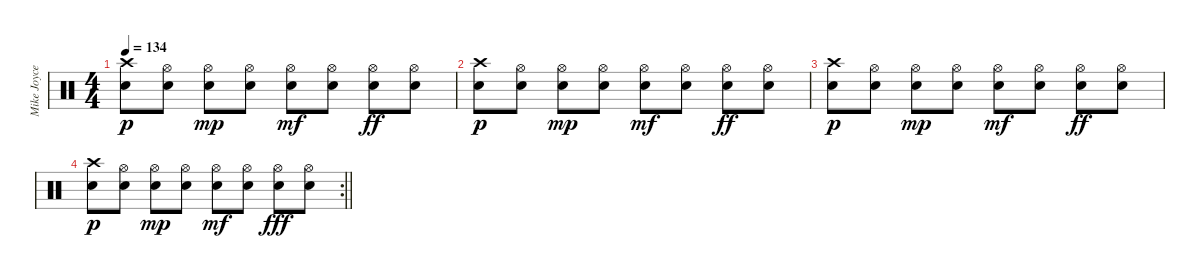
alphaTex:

\track ("Mike Joyce" "Mike Joyce") {instrument percussion}
\staff {score}
\articulation defaults
\ts (4 4)
\tempo 134
\clef neutral
\ks c
("Crash high (hit)" "Snare (hit) 2").8{bd 480 dy p} ("Hi-Hat (open)" "Snare (hit) 2").8 ("Hi-Hat (open)" "Snare (hit) 2").8{dy mp} ("Hi-Hat (open)" "Snare (hit) 2").8 ("Hi-Hat (open)" "Snare (hit) 2").8{dy mf} ("Hi-Hat (open)" "Snare (hit) 2").8 ("Hi-Hat (open)" "Snare (hit) 2").8{dy ff} ("Hi-Hat (open)" "Snare (hit) 2").8 |
("Crash high (hit)" "Snare (hit) 2").8{bd 480 dy p} ("Hi-Hat (open)" "Snare (hit) 2").8 ("Hi-Hat (open)" "Snare (hit) 2").8{dy mp} ("Hi-Hat (open)" "Snare (hit) 2").8 ("Hi-Hat (open)" "Snare (hit) 2").8{dy mf} ("Hi-Hat (open)" "Snare (hit) 2").8 ("Hi-Hat (open)" "Snare (hit) 2").8{dy ff} ("Hi-Hat (open)" "Snare (hit) 2").8 |
("Crash high (hit)" "Snare (hit) 2").8{bd 480 dy p} ("Hi-Hat (open)" "Snare (hit) 2").8 ("Hi-Hat (open)" "Snare (hit) 2").8{dy mp} ("Hi-Hat (open)" "Snare (hit) 2").8 ("Hi-Hat (open)" "Snare (hit) 2").8{dy mf} ("Hi-Hat (open)" "Snare (hit) 2").8 ("Hi-Hat (open)" "Snare (hit) 2").8{dy ff} ("Hi-Hat (open)" "Snare (hit) 2").8 |
\rc 2
\barLineRight lightlight
("Crash high (hit)" "Snare (hit) 2").8{bd 480 dy p} ("Hi-Hat (open)" "Snare (hit) 2").8 ("Hi-Hat (open)" "Snare (hit) 2").8{dy mp} ("Hi-Hat (open)" "Snare (hit) 2").8 ("Hi-Hat (open)" "Snare (hit) 2").8{dy mf} ("Hi-Hat (open)" "Snare (hit) 2").8 ("Hi-Hat (open)" "Snare (hit) 2").8{dy fff} ("Hi-Hat (open)" "Snare (hit) 2").8
